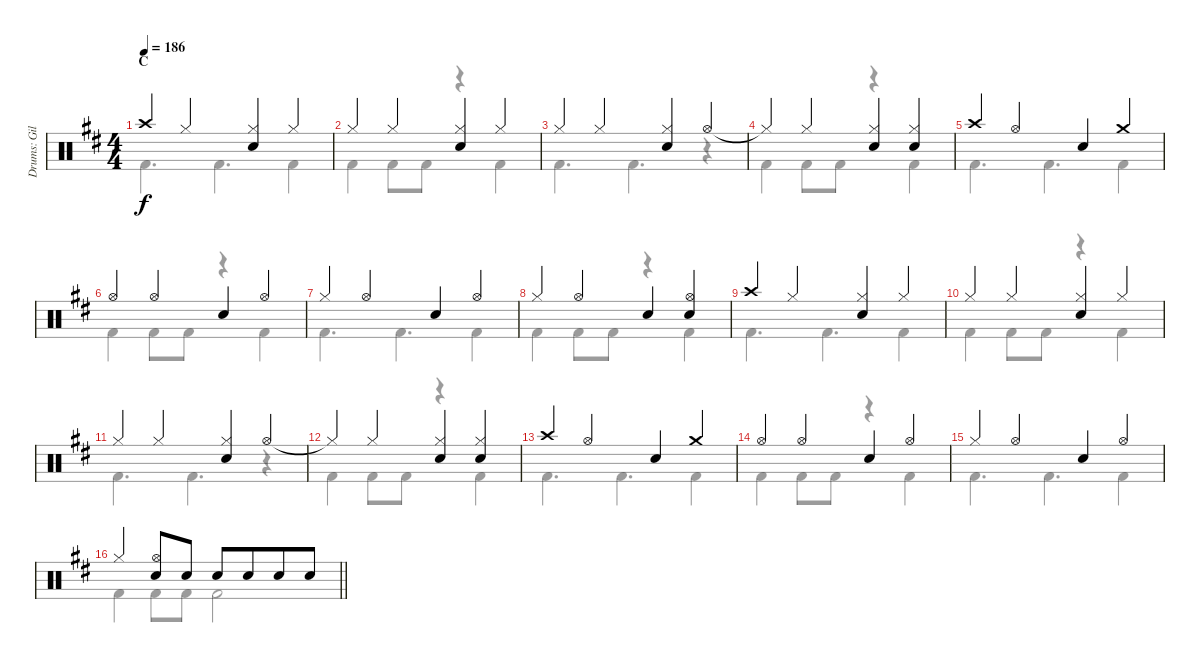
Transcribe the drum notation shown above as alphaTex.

\track ("Drums: Gil" "Drums: Gil") {instrument percussion}
\staff {score}
\articulation defaults
\voice
\ts (4 4)
\section ("" "C")
\tempo 186
\clef neutral
\ks d "Crash high (hit)".4{dy f} "Hi-Hat (closed)".4
("Hi-Hat (closed)" "Snare (hit) 2").4 "Hi-Hat (closed)".4 |
"Hi-Hat (closed)".4 "Hi-Hat (closed)".4 ("Hi-Hat (closed)" "Snare (hit) 2").4 "Hi-Hat (closed)".4 |
"Hi-Hat (closed)".4 "Hi-Hat (closed)".4 ("Hi-Hat (closed)" "Snare (hit) 2").4 "Hi-Hat (open)".4 |
"Hi-Hat (closed)"{t}.4 "Hi-Hat (closed)".4 ("Hi-Hat (closed)" "Snare (hit) 2").4 ("Hi-Hat (closed)" "Snare (hit) 2").4 |
"Crash high (hit)".4 "Hi-Hat (open)".4 "Snare (hit) 2".4 "Crash medium (hit)".4 |
"Hi-Hat (open)".4 "Hi-Hat (open)".4 "Snare (hit) 2".4 "Hi-Hat (open)".4 |
"Hi-Hat (closed)".4 "Hi-Hat (open)".4 "Snare (hit) 2".4 "Hi-Hat (open)".4 |
"Hi-Hat (closed)".4 "Hi-Hat (open)".4 "Snare (hit) 2".4 ("Hi-Hat (open)" "Snare (hit) 2").4 |
"Crash high (hit)".4 "Hi-Hat (closed)".4 ("Hi-Hat (closed)" "Snare (hit) 2").4 "Hi-Hat (closed)".4 |
"Hi-Hat (closed)".4 "Hi-Hat (closed)".4 ("Hi-Hat (closed)" "Snare (hit) 2").4 "Hi-Hat (closed)".4 |
"Hi-Hat (closed)".4 "Hi-Hat (closed)".4 ("Hi-Hat (closed)" "Snare (hit) 2").4 "Hi-Hat (open)".4 |
"Hi-Hat (closed)"{t}.4 "Hi-Hat (closed)".4 ("Hi-Hat (closed)" "Snare (hit) 2").4 ("Hi-Hat (closed)" "Snare (hit) 2").4 |
"Crash high (hit)".4 "Hi-Hat (open)".4 "Snare (hit) 2".4 "Crash medium (hit)".4 |
"Hi-Hat (open)".4 "Hi-Hat (open)".4 "Snare (hit) 2".4 "Hi-Hat (open)".4 |
"Hi-Hat (closed)".4 "Hi-Hat (open)".4 "Snare (hit) 2".4 "Hi-Hat (open)".4 |
\barLineRight lightlight "Hi-Hat (closed)".4
("Hi-Hat (open)" "Snare (hit) 2").8 "Snare (hit) 2".8 "Snare (hit) 2".8 "Snare (hit) 2".8{beam merge} "Snare (hit) 2".8 "Snare (hit) 2".8
\voice
\clef neutral
\ottava regular
\simile none
\ks d "Kick (hit) 2".4{d dy f} "Kick (hit) 2".4{d} "Kick (hit) 2".4
|
"Kick (hit) 2".4 "Kick (hit) 2".8 "Kick (hit) 2".8 r.4 "Kick (hit) 2".4 |
"Kick (hit) 2".4{d} "Kick (hit) 2".4{d} r.4 |
"Kick (hit) 2".4 "Kick (hit) 2".8 "Kick (hit) 2".8 r.4 "Kick (hit) 2".4 |
"Kick (hit) 2".4{d} "Kick (hit) 2".4{d} "Kick (hit) 2".4 |
"Kick (hit) 2".4 "Kick (hit) 2".8 "Kick (hit) 2".8 r.4 "Kick (hit) 2".4 |
"Kick (hit) 2".4{d} "Kick (hit) 2".4{d} "Kick (hit) 2".4 |
"Kick (hit) 2".4 "Kick (hit) 2".8 "Kick (hit) 2".8 r.4 "Kick (hit) 2".4 |
"Kick (hit) 2".4{d} "Kick (hit) 2".4{d} "Kick (hit) 2".4 |
"Kick (hit) 2".4 "Kick (hit) 2".8 "Kick (hit) 2".8 r.4 "Kick (hit) 2".4 |
"Kick (hit) 2".4{d} "Kick (hit) 2".4{d} r.4 |
"Kick (hit) 2".4 "Kick (hit) 2".8 "Kick (hit) 2".8 r.4 "Kick (hit) 2".4 |
"Kick (hit) 2".4{d} "Kick (hit) 2".4{d} "Kick (hit) 2".4 |
"Kick (hit) 2".4 "Kick (hit) 2".8 "Kick (hit) 2".8 r.4 "Kick (hit) 2".4 |
"Kick (hit) 2".4{d} "Kick (hit) 2".4{d} "Kick (hit) 2".4 |
\barLineRight lightlight "Kick (hit) 2".4 "Kick (hit) 2".8 "Kick (hit) 2".8 "Kick (hit) 2".2
